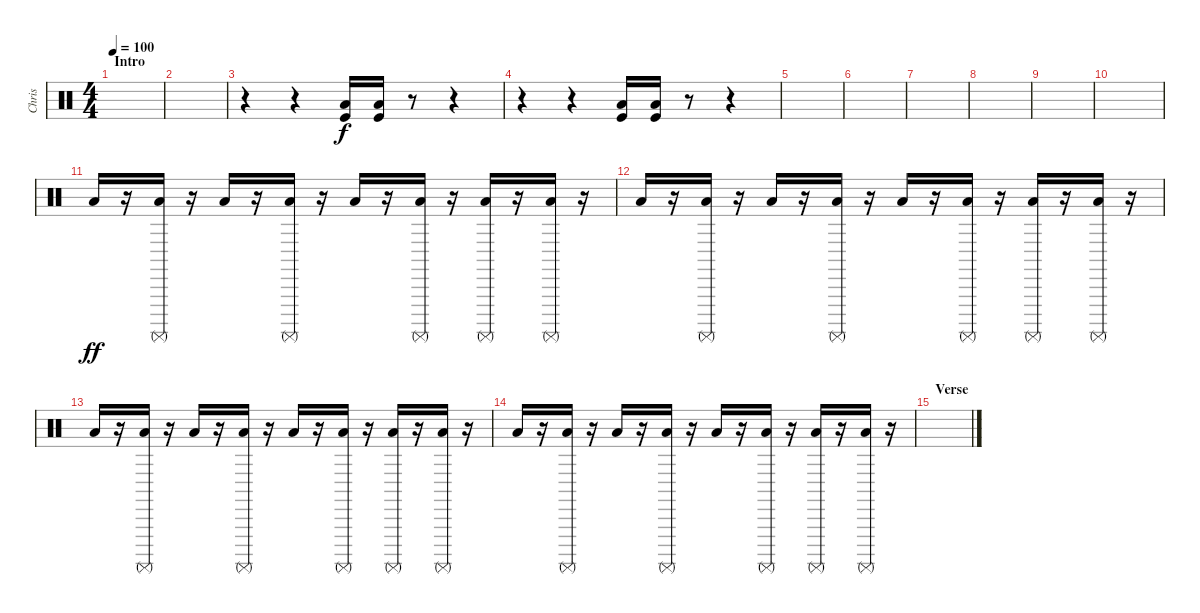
\track ("Chris" "Chris") {instrument percussion}
\staff {score}
\articulation defaults
\ts (4 4)
\section ("" "Intro")
\tempo 100
\clef neutral
\ks c
|
|
r.4 r.4 ("Kick (hit)" "Low Floor Tom (hit)").16 ("Kick (hit)" "Low Floor Tom (hit)").16 r.8 r.4 |
r.4 r.4 ("Kick (hit)" "Low Floor Tom (hit)").16 ("Kick (hit)" "Low Floor Tom (hit)").16 r.8 r.4 |
|
|
|
|
|
|
"Low Floor Tom (hit)".16{dy ff} r.16 ("Surdo (mute)" "Low Floor Tom (hit)").16 r.16 "Low Floor Tom (hit)".16 r.16 ("Surdo (mute)" "Low Floor Tom (hit)").16 r.16 "Low Floor Tom (hit)".16 r.16 ("Surdo (mute)" "Low Floor Tom (hit)").16 r.16 ("Surdo (mute)" "Low Floor Tom (hit)").16 r.16 ("Surdo (mute)" "Low Floor Tom (hit)").16 r.16 |
"Low Floor Tom (hit)".16 r.16 ("Surdo (mute)" "Low Floor Tom (hit)").16 r.16 "Low Floor Tom (hit)".16 r.16 ("Surdo (mute)" "Low Floor Tom (hit)").16 r.16 "Low Floor Tom (hit)".16 r.16 ("Surdo (mute)" "Low Floor Tom (hit)").16 r.16 ("Surdo (mute)" "Low Floor Tom (hit)").16 r.16 ("Surdo (mute)" "Low Floor Tom (hit)").16 r.16 |
"Low Floor Tom (hit)".16 r.16 ("Surdo (mute)" "Low Floor Tom (hit)").16 r.16 "Low Floor Tom (hit)".16 r.16 ("Surdo (mute)" "Low Floor Tom (hit)").16 r.16 "Low Floor Tom (hit)".16 r.16 ("Surdo (mute)" "Low Floor Tom (hit)").16 r.16 ("Surdo (mute)" "Low Floor Tom (hit)").16 r.16 ("Surdo (mute)" "Low Floor Tom (hit)").16 r.16 |
"Low Floor Tom (hit)".16 r.16 ("Surdo (mute)" "Low Floor Tom (hit)").16 r.16 "Low Floor Tom (hit)".16 r.16 ("Surdo (mute)" "Low Floor Tom (hit)").16 r.16 "Low Floor Tom (hit)".16 r.16 ("Surdo (mute)" "Low Floor Tom (hit)").16 r.16 ("Surdo (mute)" "Low Floor Tom (hit)").16 r.16 ("Surdo (mute)" "Low Floor Tom (hit)").16 r.16 |
\section ("" "Verse")
